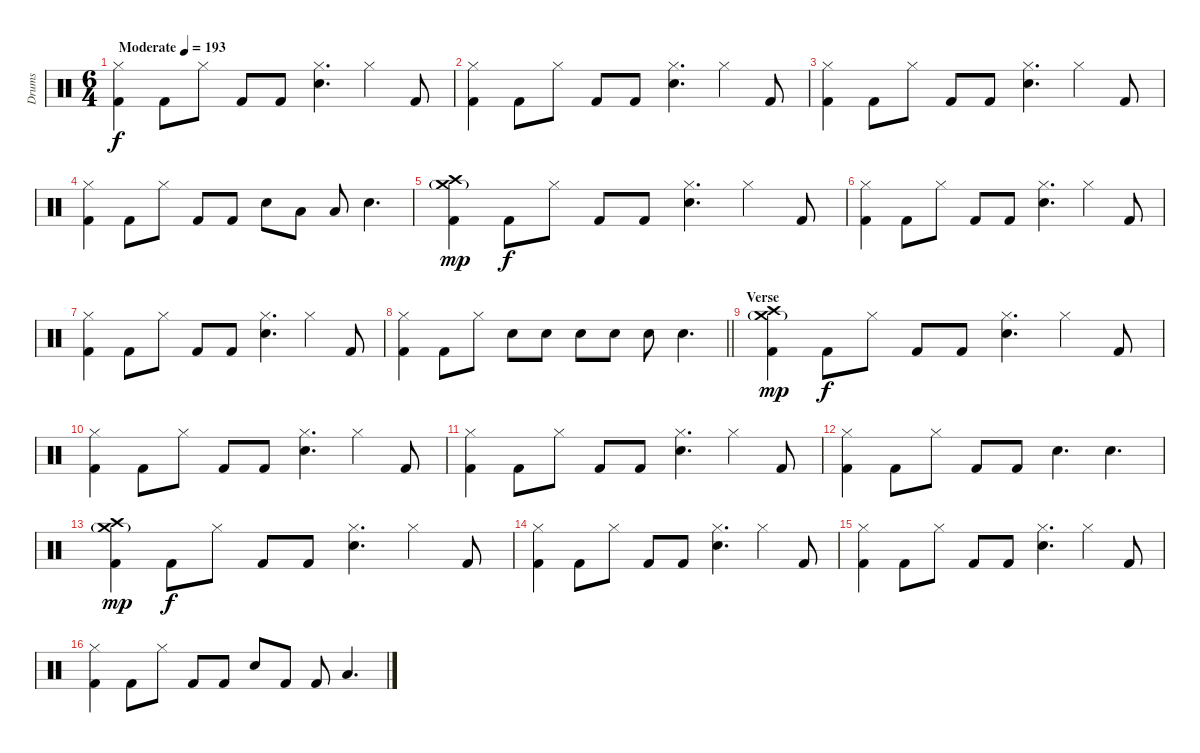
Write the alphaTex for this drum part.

\track ("Drums" "Drums") {instrument percussion}
\staff {score}
\articulation defaults
\ts (6 4)
\tempo (193 "Moderate")
\clef neutral
\ks c
("Hi-Hat (closed)" "Kick (hit) 2").4{dy f} "Kick (hit) 2".8 "Hi-Hat (closed)".8 "Kick (hit) 2".8 "Kick (hit) 2".8 ("Hi-Hat (closed)" "Electric Snare (hit)").4{d} "Hi-Hat (closed)".4 "Kick (hit) 2".8 |
("Hi-Hat (closed)" "Kick (hit) 2").4 "Kick (hit) 2".8 "Hi-Hat (closed)".8 "Kick (hit) 2".8 "Kick (hit) 2".8 ("Hi-Hat (closed)" "Electric Snare (hit)").4{d} "Hi-Hat (closed)".4 "Kick (hit) 2".8 |
("Hi-Hat (closed)" "Kick (hit) 2").4 "Kick (hit) 2".8 "Hi-Hat (closed)".8 "Kick (hit) 2".8 "Kick (hit) 2".8 ("Hi-Hat (closed)" "Electric Snare (hit)").4{d} "Hi-Hat (closed)".4 "Kick (hit) 2".8 |
("Hi-Hat (closed)" "Kick (hit) 2").4 "Kick (hit) 2".8 "Hi-Hat (closed)".8 "Kick (hit) 2".8 "Kick (hit) 2".8 "Electric Snare (hit)".8 "Low Floor Tom (hit)".8 "Low Floor Tom (hit)".8 "Electric Snare (hit)".4{d} |
("Crash high (hit)" "Crash medium (hit)"{g} "Kick (hit) 2").4{dy mp} "Kick (hit) 2".8{dy f} "Hi-Hat (closed)".8 "Kick (hit) 2".8 "Kick (hit) 2".8 ("Hi-Hat (closed)" "Electric Snare (hit)").4{d} "Hi-Hat (closed)".4 "Kick (hit) 2".8 |
("Hi-Hat (closed)" "Kick (hit) 2").4 "Kick (hit) 2".8 "Hi-Hat (closed)".8 "Kick (hit) 2".8 "Kick (hit) 2".8 ("Hi-Hat (closed)" "Electric Snare (hit)").4{d} "Hi-Hat (closed)".4 "Kick (hit) 2".8 |
("Hi-Hat (closed)" "Kick (hit) 2").4 "Kick (hit) 2".8 "Hi-Hat (closed)".8 "Kick (hit) 2".8 "Kick (hit) 2".8 ("Hi-Hat (closed)" "Electric Snare (hit)").4{d} "Hi-Hat (closed)".4 "Kick (hit) 2".8 |
\barLineRight lightlight
("Hi-Hat (closed)" "Kick (hit) 2").4 "Kick (hit) 2".8 "Hi-Hat (closed)".8 "Electric Snare (hit)".8 "Electric Snare (hit)".8 "Electric Snare (hit)".8 "Electric Snare (hit)".8 "Electric Snare (hit)".8 "Electric Snare (hit)".4{d} |
\section ("" "Verse")
("Crash high (hit)" "Crash medium (hit)"{g} "Kick (hit) 2").4{dy mp} "Kick (hit) 2".8{dy f} "Hi-Hat (closed)".8 "Kick (hit) 2".8 "Kick (hit) 2".8 ("Hi-Hat (closed)" "Electric Snare (hit)").4{d} "Hi-Hat (closed)".4 "Kick (hit) 2".8 |
("Hi-Hat (closed)" "Kick (hit) 2").4 "Kick (hit) 2".8 "Hi-Hat (closed)".8 "Kick (hit) 2".8 "Kick (hit) 2".8 ("Hi-Hat (closed)" "Electric Snare (hit)").4{d} "Hi-Hat (closed)".4 "Kick (hit) 2".8 |
("Hi-Hat (closed)" "Kick (hit) 2").4 "Kick (hit) 2".8 "Hi-Hat (closed)".8 "Kick (hit) 2".8 "Kick (hit) 2".8 ("Hi-Hat (closed)" "Electric Snare (hit)").4{d} "Hi-Hat (closed)".4 "Kick (hit) 2".8 |
("Hi-Hat (closed)" "Kick (hit) 2").4 "Kick (hit) 2".8 "Hi-Hat (closed)".8 "Kick (hit) 2".8 "Kick (hit) 2".8 "Electric Snare (hit)".4{d} "Electric Snare (hit)".4{d} |
("Crash high (hit)" "Crash medium (hit)"{g} "Kick (hit) 2").4{dy mp} "Kick (hit) 2".8{dy f} "Hi-Hat (closed)".8 "Kick (hit) 2".8 "Kick (hit) 2".8 ("Hi-Hat (closed)" "Electric Snare (hit)").4{d} "Hi-Hat (closed)".4 "Kick (hit) 2".8 |
("Hi-Hat (closed)" "Kick (hit) 2").4 "Kick (hit) 2".8 "Hi-Hat (closed)".8 "Kick (hit) 2".8 "Kick (hit) 2".8 ("Hi-Hat (closed)" "Electric Snare (hit)").4{d} "Hi-Hat (closed)".4 "Kick (hit) 2".8 |
("Hi-Hat (closed)" "Kick (hit) 2").4 "Kick (hit) 2".8 "Hi-Hat (closed)".8 "Kick (hit) 2".8 "Kick (hit) 2".8 ("Hi-Hat (closed)" "Electric Snare (hit)").4{d} "Hi-Hat (closed)".4 "Kick (hit) 2".8 |
("Hi-Hat (closed)" "Kick (hit) 2").4 "Kick (hit) 2".8 "Hi-Hat (closed)".8 "Kick (hit) 2".8 "Kick (hit) 2".8 "Electric Snare (hit)".8 "Kick (hit) 2".8 "Kick (hit) 2".8 "Low Floor Tom (hit)".4{d}
